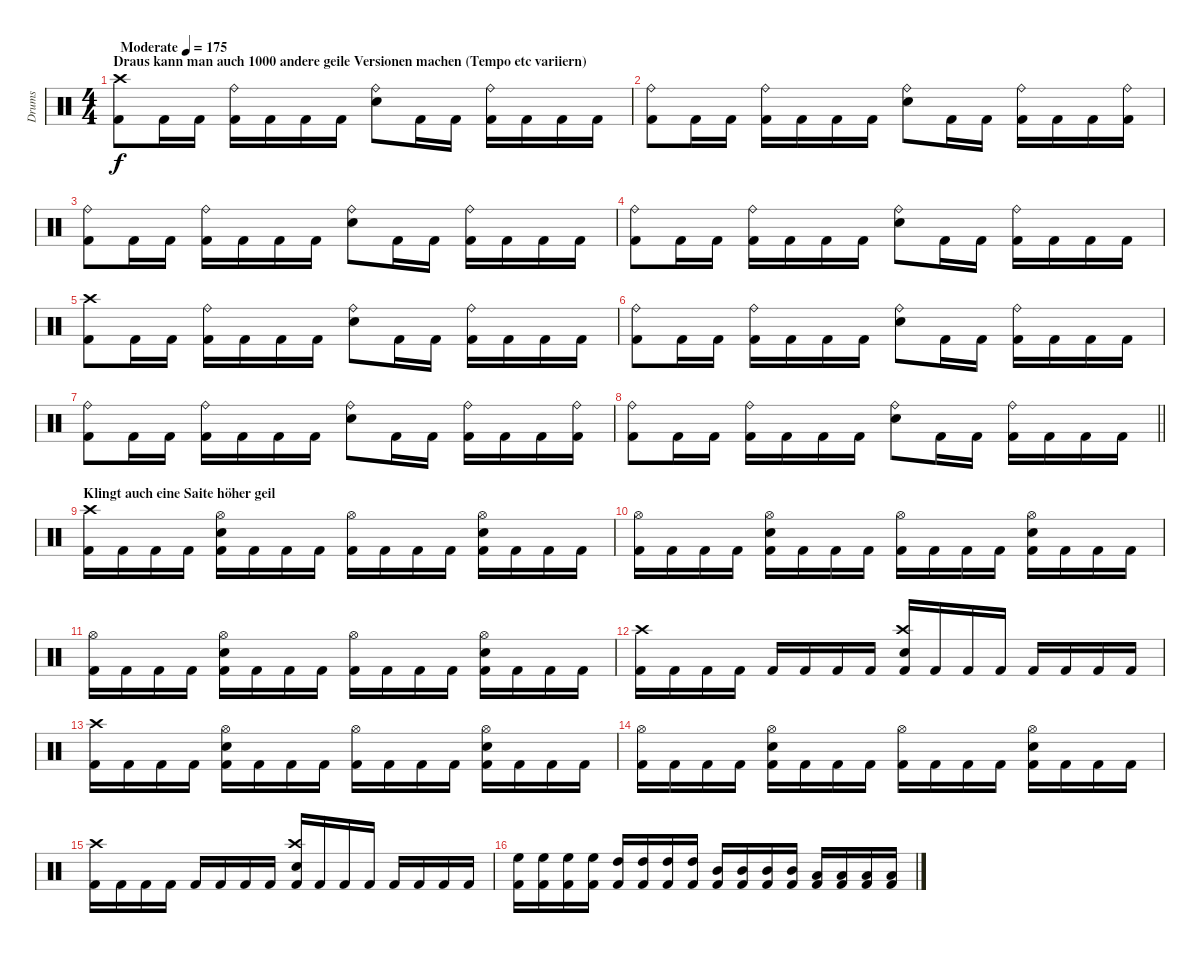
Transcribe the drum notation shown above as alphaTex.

\track ("Drums" "Drums") {instrument percussion}
\staff {score}
\articulation defaults
\ts (4 4)
\section ("" "Draus kann man auch 1000 andere geile Versionen machen (Tempo etc variiern)")
\tempo (175 "Moderate")
\clef neutral
\ks c
("Kick (hit) 2" "Crash high (hit)").8{dy f} "Kick (hit) 2".16 "Kick (hit) 2".16 ("Kick (hit) 2" "Ride (bell)").16 "Kick (hit) 2".16 "Kick (hit) 2".16 "Kick (hit) 2".16 ("Snare (hit) 2" "Ride (bell)").8 "Kick (hit) 2".16 "Kick (hit) 2".16 ("Kick (hit) 2" "Ride (bell)").16 "Kick (hit) 2".16 "Kick (hit) 2".16 "Kick (hit) 2".16 |
("Kick (hit) 2" "Ride (bell)").8 "Kick (hit) 2".16 "Kick (hit) 2".16 ("Kick (hit) 2" "Ride (bell)").16 "Kick (hit) 2".16 "Kick (hit) 2".16 "Kick (hit) 2".16 ("Snare (hit) 2" "Ride (bell)").8 "Kick (hit) 2".16 "Kick (hit) 2".16 ("Kick (hit) 2" "Ride (bell)").16 "Kick (hit) 2".16 "Kick (hit) 2".16 ("Kick (hit) 2" "Ride (bell)").16 |
("Kick (hit) 2" "Ride (bell)").8 "Kick (hit) 2".16 "Kick (hit) 2".16 ("Kick (hit) 2" "Ride (bell)").16 "Kick (hit) 2".16 "Kick (hit) 2".16 "Kick (hit) 2".16 ("Snare (hit) 2" "Ride (bell)").8 "Kick (hit) 2".16 "Kick (hit) 2".16 ("Kick (hit) 2" "Ride (bell)").16 "Kick (hit) 2".16 "Kick (hit) 2".16 "Kick (hit) 2".16 |
("Kick (hit) 2" "Ride (bell)").8 "Kick (hit) 2".16 "Kick (hit) 2".16 ("Kick (hit) 2" "Ride (bell)").16 "Kick (hit) 2".16 "Kick (hit) 2".16 "Kick (hit) 2".16 ("Snare (hit) 2" "Ride (bell)").8 "Kick (hit) 2".16 "Kick (hit) 2".16 ("Kick (hit) 2" "Ride (bell)").16 "Kick (hit) 2".16 "Kick (hit) 2".16 "Kick (hit) 2".16 |
("Kick (hit) 2" "Crash high (hit)").8 "Kick (hit) 2".16 "Kick (hit) 2".16 ("Kick (hit) 2" "Ride (bell)").16 "Kick (hit) 2".16 "Kick (hit) 2".16 "Kick (hit) 2".16 ("Snare (hit) 2" "Ride (bell)").8 "Kick (hit) 2".16 "Kick (hit) 2".16 ("Kick (hit) 2" "Ride (bell)").16 "Kick (hit) 2".16 "Kick (hit) 2".16 "Kick (hit) 2".16 |
("Kick (hit) 2" "Ride (bell)").8 "Kick (hit) 2".16 "Kick (hit) 2".16 ("Kick (hit) 2" "Ride (bell)").16 "Kick (hit) 2".16 "Kick (hit) 2".16 "Kick (hit) 2".16 ("Snare (hit) 2" "Ride (bell)").8 "Kick (hit) 2".16 "Kick (hit) 2".16 ("Kick (hit) 2" "Ride (bell)").16 "Kick (hit) 2".16 "Kick (hit) 2".16 "Kick (hit) 2".16 |
("Kick (hit) 2" "Ride (bell)").8 "Kick (hit) 2".16 "Kick (hit) 2".16 ("Kick (hit) 2" "Ride (bell)").16 "Kick (hit) 2".16 "Kick (hit) 2".16 "Kick (hit) 2".16 ("Snare (hit) 2" "Ride (bell)").8 "Kick (hit) 2".16 "Kick (hit) 2".16 ("Kick (hit) 2" "Ride (bell)").16 "Kick (hit) 2".16 "Kick (hit) 2".16 ("Kick (hit) 2" "Ride (bell)").16 |
\barLineRight lightlight
("Kick (hit) 2" "Ride (bell)").8 "Kick (hit) 2".16 "Kick (hit) 2".16 ("Kick (hit) 2" "Ride (bell)").16 "Kick (hit) 2".16 "Kick (hit) 2".16 "Kick (hit) 2".16 ("Snare (hit) 2" "Ride (bell)").8 "Kick (hit) 2".16 "Kick (hit) 2".16 ("Kick (hit) 2" "Ride (bell)").16 "Kick (hit) 2".16 "Kick (hit) 2".16 "Kick (hit) 2".16 |
\section ("" "Klingt auch eine Saite höher geil")
("Kick (hit) 2" "Crash high (hit)").16 "Kick (hit) 2".16 "Kick (hit) 2".16 "Kick (hit) 2".16 ("Kick (hit) 2" "Snare (hit) 2" "Hi-Hat (open)").16 "Kick (hit) 2".16 "Kick (hit) 2".16 "Kick (hit) 2".16 ("Kick (hit) 2" "Hi-Hat (open)").16 "Kick (hit) 2".16 "Kick (hit) 2".16 "Kick (hit) 2".16 ("Kick (hit) 2" "Snare (hit) 2" "Hi-Hat (open)").16 "Kick (hit) 2".16 "Kick (hit) 2".16 "Kick (hit) 2".16 |
("Kick (hit) 2" "Hi-Hat (open)").16 "Kick (hit) 2".16 "Kick (hit) 2".16 "Kick (hit) 2".16 ("Kick (hit) 2" "Snare (hit) 2" "Hi-Hat (open)").16 "Kick (hit) 2".16 "Kick (hit) 2".16 "Kick (hit) 2".16 ("Kick (hit) 2" "Hi-Hat (open)").16 "Kick (hit) 2".16 "Kick (hit) 2".16 "Kick (hit) 2".16 ("Kick (hit) 2" "Snare (hit) 2" "Hi-Hat (open)").16 "Kick (hit) 2".16 "Kick (hit) 2".16 "Kick (hit) 2".16 |
("Kick (hit) 2" "Hi-Hat (open)").16 "Kick (hit) 2".16 "Kick (hit) 2".16 "Kick (hit) 2".16 ("Kick (hit) 2" "Snare (hit) 2" "Hi-Hat (open)").16 "Kick (hit) 2".16 "Kick (hit) 2".16 "Kick (hit) 2".16 ("Kick (hit) 2" "Hi-Hat (open)").16 "Kick (hit) 2".16 "Kick (hit) 2".16 "Kick (hit) 2".16 ("Kick (hit) 2" "Snare (hit) 2" "Hi-Hat (open)").16 "Kick (hit) 2".16 "Kick (hit) 2".16 "Kick (hit) 2".16 |
("Kick (hit) 2" "Crash high (hit)").16 "Kick (hit) 2".16 "Kick (hit) 2".16 "Kick (hit) 2".16 "Kick (hit) 2".16 "Kick (hit) 2".16 "Kick (hit) 2".16 "Kick (hit) 2".16 ("Kick (hit) 2" "Snare (hit) 2" "Crash high (hit)").16 "Kick (hit) 2".16 "Kick (hit) 2".16 "Kick (hit) 2".16 "Kick (hit) 2".16 "Kick (hit) 2".16 "Kick (hit) 2".16 "Kick (hit) 2".16 |
("Kick (hit) 2" "Crash high (hit)").16 "Kick (hit) 2".16 "Kick (hit) 2".16 "Kick (hit) 2".16 ("Kick (hit) 2" "Snare (hit) 2" "Hi-Hat (open)").16 "Kick (hit) 2".16 "Kick (hit) 2".16 "Kick (hit) 2".16 ("Kick (hit) 2" "Hi-Hat (open)").16 "Kick (hit) 2".16 "Kick (hit) 2".16 "Kick (hit) 2".16 ("Kick (hit) 2" "Snare (hit) 2" "Hi-Hat (open)").16 "Kick (hit) 2".16 "Kick (hit) 2".16 "Kick (hit) 2".16 |
("Kick (hit) 2" "Hi-Hat (open)").16 "Kick (hit) 2".16 "Kick (hit) 2".16 "Kick (hit) 2".16 ("Kick (hit) 2" "Snare (hit) 2" "Hi-Hat (open)").16 "Kick (hit) 2".16 "Kick (hit) 2".16 "Kick (hit) 2".16 ("Kick (hit) 2" "Hi-Hat (open)").16 "Kick (hit) 2".16 "Kick (hit) 2".16 "Kick (hit) 2".16 ("Kick (hit) 2" "Snare (hit) 2" "Hi-Hat (open)").16 "Kick (hit) 2".16 "Kick (hit) 2".16 "Kick (hit) 2".16 |
("Kick (hit) 2" "Crash high (hit)").16 "Kick (hit) 2".16 "Kick (hit) 2".16 "Kick (hit) 2".16 "Kick (hit) 2".16 "Kick (hit) 2".16 "Kick (hit) 2".16 "Kick (hit) 2".16 ("Kick (hit) 2" "Snare (hit) 2" "Crash high (hit)").16 "Kick (hit) 2".16 "Kick (hit) 2".16 "Kick (hit) 2".16 "Kick (hit) 2".16 "Kick (hit) 2".16 "Kick (hit) 2".16 "Kick (hit) 2".16 |
("Kick (hit) 2" "High Floor Tom (hit)").16 ("Kick (hit) 2" "High Floor Tom (hit)").16 ("Kick (hit) 2" "High Floor Tom (hit)").16 ("Kick (hit) 2" "High Floor Tom (hit)").16 ("Kick (hit) 2" "High Tom (hit)").16 ("Kick (hit) 2" "High Tom (hit)").16 ("Kick (hit) 2" "High Tom (hit)").16 ("Kick (hit) 2" "High Tom (hit)").16 ("Kick (hit) 2" "Mid Tom (hit)").16 ("Kick (hit) 2" "Mid Tom (hit)").16 ("Kick (hit) 2" "Mid Tom (hit)").16 ("Kick (hit) 2" "Mid Tom (hit)").16 ("Kick (hit) 2" "Low Tom (hit)").16 ("Kick (hit) 2" "Low Tom (hit)").16 ("Kick (hit) 2" "Low Tom (hit)").16 ("Kick (hit) 2" "Low Tom (hit)").16
